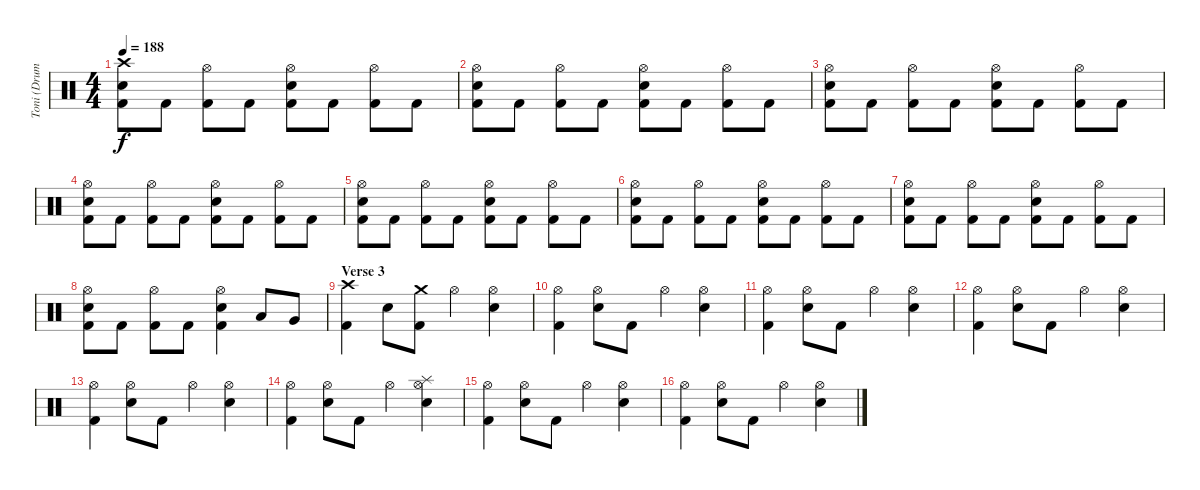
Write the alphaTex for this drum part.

\track ("Toni (Drums)" "Toni (Drum") {instrument percussion}
\staff {score}
\articulation defaults
\ts (4 4)
\tempo 188
\clef neutral
\ks c
("Crash high (hit)" "Electric Snare (hit)" "Kick (hit) 2").8{dy f} "Kick (hit) 2".8 ("Hi-Hat (open)" "Kick (hit) 2").8 "Kick (hit) 2".8 ("Hi-Hat (open)" "Electric Snare (hit)" "Kick (hit) 2").8 "Kick (hit) 2".8 ("Hi-Hat (open)" "Kick (hit) 2").8 "Kick (hit) 2".8 |
("Hi-Hat (open)" "Electric Snare (hit)" "Kick (hit) 2").8 "Kick (hit) 2".8 ("Hi-Hat (open)" "Kick (hit) 2").8 "Kick (hit) 2".8 ("Hi-Hat (open)" "Electric Snare (hit)" "Kick (hit) 2").8 "Kick (hit) 2".8 ("Hi-Hat (open)" "Kick (hit) 2").8 "Kick (hit) 2".8 |
("Hi-Hat (open)" "Electric Snare (hit)" "Kick (hit) 2").8 "Kick (hit) 2".8 ("Hi-Hat (open)" "Kick (hit) 2").8 "Kick (hit) 2".8 ("Hi-Hat (open)" "Electric Snare (hit)" "Kick (hit) 2").8 "Kick (hit) 2".8 ("Hi-Hat (open)" "Kick (hit) 2").8 "Kick (hit) 2".8 |
("Hi-Hat (open)" "Electric Snare (hit)" "Kick (hit) 2").8 "Kick (hit) 2".8 ("Hi-Hat (open)" "Kick (hit) 2").8 "Kick (hit) 2".8 ("Hi-Hat (open)" "Electric Snare (hit)" "Kick (hit) 2").8 "Kick (hit) 2".8 ("Hi-Hat (open)" "Kick (hit) 2").8 "Kick (hit) 2".8 |
("Hi-Hat (open)" "Electric Snare (hit)" "Kick (hit) 2").8 "Kick (hit) 2".8 ("Hi-Hat (open)" "Kick (hit) 2").8 "Kick (hit) 2".8 ("Hi-Hat (open)" "Electric Snare (hit)" "Kick (hit) 2").8 "Kick (hit) 2".8 ("Hi-Hat (open)" "Kick (hit) 2").8 "Kick (hit) 2".8 |
("Hi-Hat (open)" "Electric Snare (hit)" "Kick (hit) 2").8 "Kick (hit) 2".8 ("Hi-Hat (open)" "Kick (hit) 2").8 "Kick (hit) 2".8 ("Hi-Hat (open)" "Electric Snare (hit)" "Kick (hit) 2").8 "Kick (hit) 2".8 ("Hi-Hat (open)" "Kick (hit) 2").8 "Kick (hit) 2".8 |
("Hi-Hat (open)" "Electric Snare (hit)" "Kick (hit) 2").8 "Kick (hit) 2".8 ("Hi-Hat (open)" "Kick (hit) 2").8 "Kick (hit) 2".8 ("Hi-Hat (open)" "Electric Snare (hit)" "Kick (hit) 2").8 "Kick (hit) 2".8 ("Hi-Hat (open)" "Kick (hit) 2").8 "Kick (hit) 2".8 |
("Hi-Hat (open)" "Electric Snare (hit)" "Kick (hit) 2").8 "Kick (hit) 2".8 ("Hi-Hat (open)" "Kick (hit) 2").8 "Kick (hit) 2".8 ("Hi-Hat (open)" "Electric Snare (hit)" "Kick (hit) 2").4 "Low Tom (hit)".8 "Very Low Tom (hit)".8 |
\section ("" "Verse 3")
("Crash high (hit)" "Kick (hit) 2").4 "Electric Snare (hit)".8 ("Crash medium (hit)" "Kick (hit) 2").8 "Hi-Hat (open)".4 ("Hi-Hat (open)" "Electric Snare (hit)").4 |
("Hi-Hat (open)" "Kick (hit) 2").4 ("Hi-Hat (open)" "Electric Snare (hit)").8 "Kick (hit) 2".8 "Hi-Hat (open)".4 ("Hi-Hat (open)" "Electric Snare (hit)").4 |
("Hi-Hat (open)" "Kick (hit) 2").4 ("Hi-Hat (open)" "Electric Snare (hit)").8 "Kick (hit) 2".8 "Hi-Hat (open)".4 ("Hi-Hat (open)" "Electric Snare (hit)").4 |
("Hi-Hat (open)" "Kick (hit) 2").4 ("Hi-Hat (open)" "Electric Snare (hit)").8 "Kick (hit) 2".8 "Hi-Hat (open)".4 ("Hi-Hat (open)" "Electric Snare (hit)").4 |
("Hi-Hat (open)" "Kick (hit) 2").4 ("Hi-Hat (open)" "Electric Snare (hit)").8 "Kick (hit) 2".8 "Hi-Hat (open)".4 ("Hi-Hat (open)" "Electric Snare (hit)").4 |
("Hi-Hat (open)" "Kick (hit) 2").4 ("Hi-Hat (open)" "Electric Snare (hit)").8 "Kick (hit) 2".8 "Hi-Hat (open)".4 ("Splash (hit)" "Hi-Hat (open)" "Electric Snare (hit)").4 |
("Hi-Hat (open)" "Kick (hit) 2").4 ("Hi-Hat (open)" "Electric Snare (hit)").8 "Kick (hit) 2".8 "Hi-Hat (open)".4 ("Hi-Hat (open)" "Electric Snare (hit)").4 |
("Hi-Hat (open)" "Kick (hit) 2").4 ("Hi-Hat (open)" "Electric Snare (hit)").8 "Kick (hit) 2".8 "Hi-Hat (open)".4 ("Hi-Hat (open)" "Electric Snare (hit)").4
